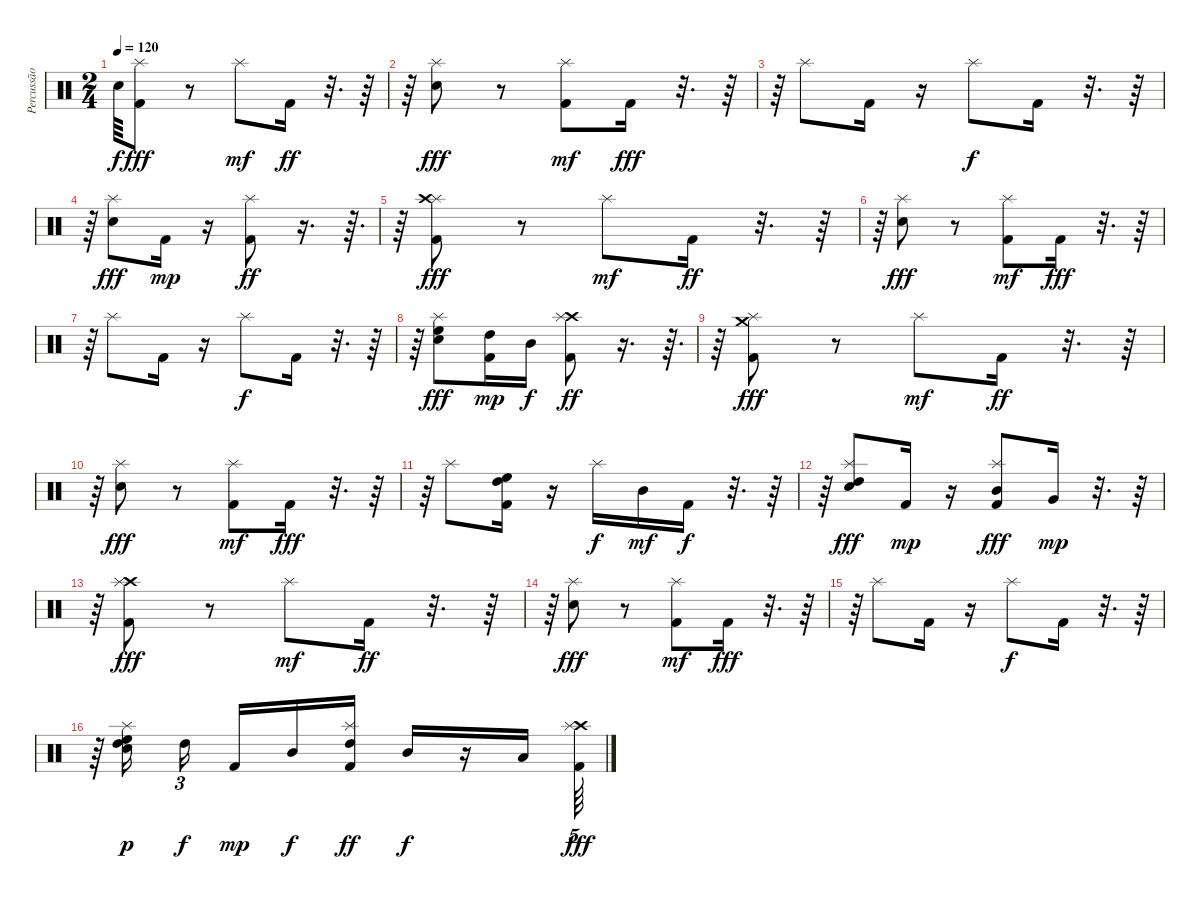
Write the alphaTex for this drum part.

\track ("Percussão" "Percussão") {instrument percussion}
\staff {score}
\articulation defaults
\ts (2 4)
\tempo 120
\clef neutral
\ks c "Snare (hit)"{t}.64{dy f}
("Kick (hit) 2" "Splash (hit)").8{dy fff} r.8 "Splash (hit)".8{dy mf} "Kick (hit) 2".16{dy ff} r.32{d} r.64 |
r.64 ("Snare (hit) 2" "Splash (hit)").8{dy fff} r.8 ("Kick (hit) 2" "Splash (hit)").8{dy mf} "Kick (hit) 2".16{dy fff} r.32{d} r.64 |
r.64 "Splash (hit)".8 "Kick (hit) 2".16 r.16 "Splash (hit)".8{dy f} "Kick (hit) 2".16 r.32{d} r.64 |
r.64 ("Snare (hit) 2" "Splash (hit)").8{dy fff} "Kick (hit) 2".16{dy mp} r.16 ("Kick (hit) 2" "Splash (hit)").8{dy ff} r.16{d} r.64{d} |
r.64 ("Kick (hit) 2" "Splash (hit)" "Crash high (hit)").8{dy fff} r.8 "Splash (hit)".8{dy mf} "Kick (hit) 2".16{dy ff} r.32{d} r.64 |
r.64 ("Snare (hit) 2" "Splash (hit)").8{dy fff} r.8 ("Kick (hit) 2" "Splash (hit)").8{dy mf} "Kick (hit) 2".16{dy fff} r.32{d} r.64 |
r.64 "Splash (hit)".8 "Kick (hit) 2".16 r.16 "Splash (hit)".8{dy f} "Kick (hit) 2".16 r.32{d} r.64 |
r.64 ("Snare (hit) 2" "Splash (hit)" "High Floor Tom (hit)").8{dy fff} ("High Tom (hit)" "Kick (hit) 2").16{dy mp} "Mid Tom (hit)".16{dy f} ("Crash high (hit)" "Kick (hit) 2" "Splash (hit)").8{dy ff} r.16{d} r.64{d} |
r.64 ("Crash medium (hit)" "Kick (hit) 2" "Splash (hit)").8{dy fff} r.8 "Splash (hit)".8{dy mf} "Kick (hit) 2".16{dy ff} r.32{d} r.64 |
r.64 ("Snare (hit) 2" "Splash (hit)").8{dy fff} r.8 ("Kick (hit) 2" "Splash (hit)").8{dy mf} "Kick (hit) 2".16{dy fff} r.32{d} r.64 |
r.64 "Splash (hit)".8 ("High Tom (hit)" "High Floor Tom (hit)" "Kick (hit) 2").16 r.16 "Splash (hit)".16{dy f} "Mid Tom (hit)".16{dy mf} "Kick (hit) 2".16{dy f} r.32{d} r.64 |
r.64 ("High Tom (hit)" "Snare (hit) 2" "Splash (hit)").8{dy fff} "Kick (hit) 2".16{dy mp} r.16 ("Kick (hit) 2" "Splash (hit)" "Mid Tom (hit)").8{dy fff} "Very Low Tom (hit)".16{dy mp} r.32{d} r.64 |
r.64 ("Crash high (hit)" "Kick (hit) 2" "Splash (hit)").8{dy fff} r.8 "Splash (hit)".8{dy mf} "Kick (hit) 2".16{dy ff} r.32{d} r.64 |
r.64 ("Snare (hit) 2" "Splash (hit)").8{dy fff} r.8 ("Kick (hit) 2" "Splash (hit)").8{dy mf} "Kick (hit) 2".16{dy fff} r.32{d} r.64 |
r.64 "Splash (hit)".8 "Kick (hit) 2".16 r.16 "Splash (hit)".8{dy f} "Kick (hit) 2".16 r.32{d} r.64 |
r.64 ("High Tom (hit)" "Snare (hit) 2" "Splash (hit)" "High Floor Tom (hit)").16{dy p beam splitsecondary} "High Tom (hit)".16{tu (3 2) dy f beam splitsecondary} "Kick (hit) 2".16{dy mp} "Mid Tom (hit)".16{dy f} ("High Tom (hit)" "Kick (hit) 2" "Splash (hit)").16{dy ff} "Mid Tom (hit)".16{dy f} r.16 "Low Tom (hit)".16 ("Crash high (hit)" "Kick (hit) 2" "Splash (hit)").64{tu (5 4) dy fff}
